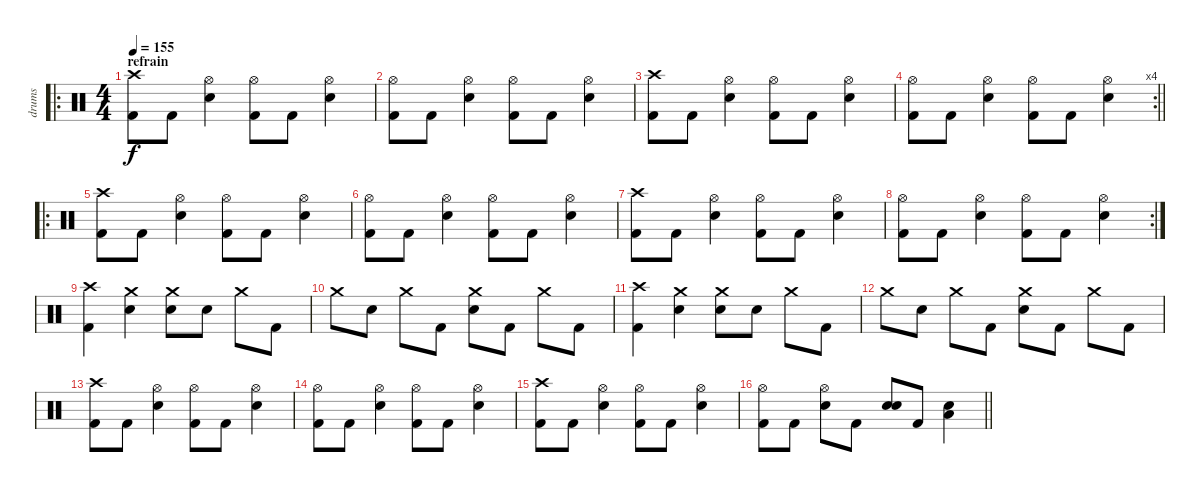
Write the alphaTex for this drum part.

\track ("drums" "drums") {instrument percussion}
\staff
\articulation defaults
\ro
\ts (4 4)
\section ("" "refrain")
\tempo 155
\clef neutral
\ks c
("Crash high (hit)" "Kick (hit) 2").8{dy f} "Kick (hit) 2".8 ("Hi-Hat (open)" "Electric Snare (hit)").4 ("Hi-Hat (open)" "Kick (hit) 2").8 "Kick (hit) 2".8 ("Hi-Hat (open)" "Electric Snare (hit)").4 |
("Hi-Hat (open)" "Kick (hit) 2").8 "Kick (hit) 2".8 ("Hi-Hat (open)" "Electric Snare (hit)").4 ("Hi-Hat (open)" "Kick (hit) 2").8 "Kick (hit) 2".8 ("Hi-Hat (open)" "Electric Snare (hit)").4 |
("Crash high (hit)" "Kick (hit) 2").8 "Kick (hit) 2".8 ("Hi-Hat (open)" "Electric Snare (hit)").4 ("Hi-Hat (open)" "Kick (hit) 2").8 "Kick (hit) 2".8 ("Hi-Hat (open)" "Electric Snare (hit)").4 |
\rc 4
\barLineRight lightlight
("Hi-Hat (open)" "Kick (hit) 2").8 "Kick (hit) 2".8 ("Hi-Hat (open)" "Electric Snare (hit)").4 ("Hi-Hat (open)" "Kick (hit) 2").8 "Kick (hit) 2".8 ("Hi-Hat (open)" "Electric Snare (hit)").4 |
\ro
("Crash high (hit)" "Kick (hit) 2").8 "Kick (hit) 2".8 ("Hi-Hat (open)" "Electric Snare (hit)").4 ("Hi-Hat (open)" "Kick (hit) 2").8 "Kick (hit) 2".8 ("Hi-Hat (open)" "Electric Snare (hit)").4 |
("Hi-Hat (open)" "Kick (hit) 2").8 "Kick (hit) 2".8 ("Hi-Hat (open)" "Electric Snare (hit)").4 ("Hi-Hat (open)" "Kick (hit) 2").8 "Kick (hit) 2".8 ("Hi-Hat (open)" "Electric Snare (hit)").4 |
("Crash high (hit)" "Kick (hit) 2").8 "Kick (hit) 2".8 ("Hi-Hat (open)" "Electric Snare (hit)").4 ("Hi-Hat (open)" "Kick (hit) 2").8 "Kick (hit) 2".8 ("Hi-Hat (open)" "Electric Snare (hit)").4 |
\rc 2
("Hi-Hat (open)" "Kick (hit) 2").8 "Kick (hit) 2".8 ("Hi-Hat (open)" "Electric Snare (hit)").4 ("Hi-Hat (open)" "Kick (hit) 2").8 "Kick (hit) 2".8 ("Hi-Hat (open)" "Electric Snare (hit)").4 |
("Crash high (hit)" "Kick (hit) 2").4 ("Crash medium (hit)" "Electric Snare (hit)").4 ("Crash medium (hit)" "Electric Snare (hit)").8 "Electric Snare (hit)".8 "Crash medium (hit)".8 "Kick (hit) 2".8 |
"Crash medium (hit)".8 "Electric Snare (hit)".8 "Crash medium (hit)".8 "Kick (hit) 2".8 ("Crash medium (hit)" "Electric Snare (hit)").8 "Kick (hit) 2".8 "Crash medium (hit)".8 "Kick (hit) 2".8 |
("Crash high (hit)" "Kick (hit) 2").4 ("Crash medium (hit)" "Electric Snare (hit)").4 ("Crash medium (hit)" "Electric Snare (hit)").8 "Electric Snare (hit)".8 "Crash medium (hit)".8 "Kick (hit) 2".8 |
"Crash medium (hit)".8 "Electric Snare (hit)".8 "Crash medium (hit)".8 "Kick (hit) 2".8 ("Crash medium (hit)" "Electric Snare (hit)").8 "Kick (hit) 2".8 "Crash medium (hit)".8 "Kick (hit) 2".8 |
("Crash high (hit)" "Kick (hit) 2").8 "Kick (hit) 2".8 ("Hi-Hat (open)" "Electric Snare (hit)").4 ("Hi-Hat (open)" "Kick (hit) 2").8 "Kick (hit) 2".8 ("Hi-Hat (open)" "Electric Snare (hit)").4 |
("Hi-Hat (open)" "Kick (hit) 2").8 "Kick (hit) 2".8 ("Hi-Hat (open)" "Electric Snare (hit)").4 ("Hi-Hat (open)" "Kick (hit) 2").8 "Kick (hit) 2".8 ("Hi-Hat (open)" "Electric Snare (hit)").4 |
("Crash high (hit)" "Kick (hit) 2").8 "Kick (hit) 2".8 ("Hi-Hat (open)" "Electric Snare (hit)").4 ("Hi-Hat (open)" "Kick (hit) 2").8 "Kick (hit) 2".8 ("Hi-Hat (open)" "Electric Snare (hit)").4 |
\barLineRight lightlight
("Hi-Hat (open)" "Kick (hit) 2").8 "Kick (hit) 2".8 ("Hi-Hat (open)" "Electric Snare (hit)").8 "Kick (hit) 2".8 ("Electric Snare (hit)" "Electric Snare (hit)").8{bd 480} "Kick (hit) 2".8 ("Low Floor Tom (hit)" "Electric Snare (hit)").4
